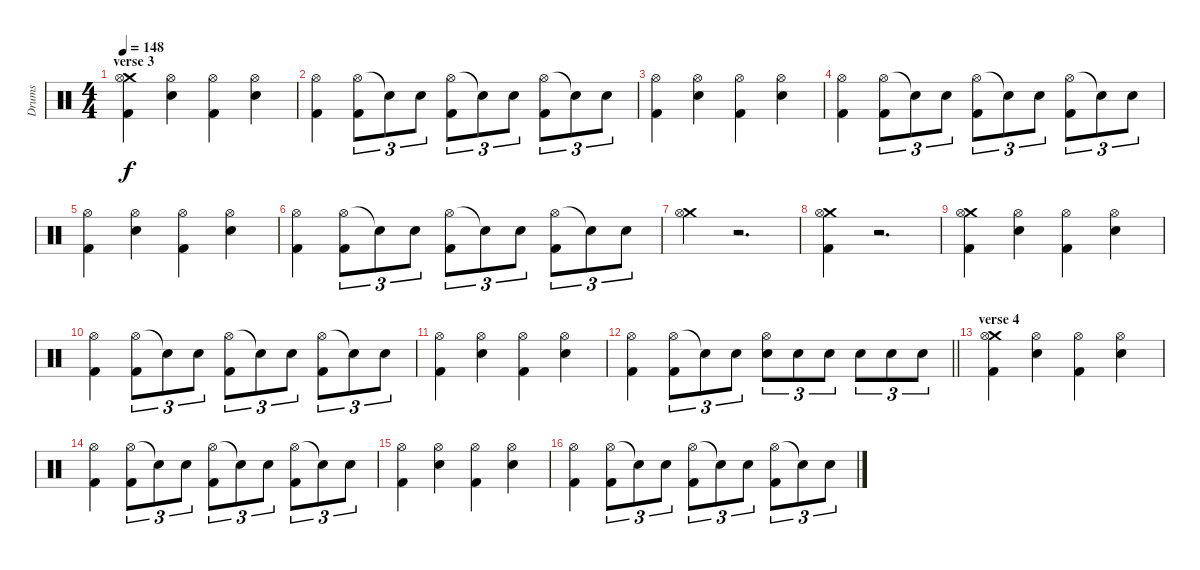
\track ("Drums" "Drums") {instrument percussion}
\staff {score}
\articulation defaults
\ts (4 4)
\section ("" "verse 3")
\tempo 148
\clef neutral
\ks c
("Crash medium (hit)" "Hi-Hat (open)" "Kick (hit) 2").4{dy f} ("Hi-Hat (open)" "Snare (hit) 2").4 ("Hi-Hat (open)" "Kick (hit) 2").4 ("Hi-Hat (open)" "Snare (hit) 2").4 |
("Hi-Hat (open)" "Kick (hit) 2").4 ("Hi-Hat (open)" "Kick (hit) 2").8{tu (3 2)} "Snare (hit)"{t}.8{tu (3 2)} "Snare (hit) 2".8{tu (3 2)} ("Hi-Hat (open)" "Kick (hit) 2").8{tu (3 2)} "Snare (hit)"{t}.8{tu (3 2)} "Snare (hit) 2".8{tu (3 2)} ("Hi-Hat (open)" "Kick (hit) 2").8{tu (3 2)} "Snare (hit) 2"{t}.8{tu (3 2)} "Snare (hit) 2".8{tu (3 2)} |
("Hi-Hat (open)" "Kick (hit) 2").4 ("Hi-Hat (open)" "Snare (hit) 2").4 ("Hi-Hat (open)" "Kick (hit) 2").4 ("Hi-Hat (open)" "Snare (hit) 2").4 |
("Hi-Hat (open)" "Kick (hit) 2").4 ("Hi-Hat (open)" "Kick (hit) 2").8{tu (3 2)} "Snare (hit)"{t}.8{tu (3 2)} "Snare (hit) 2".8{tu (3 2)} ("Hi-Hat (open)" "Kick (hit) 2").8{tu (3 2)} "Snare (hit)"{t}.8{tu (3 2)} "Snare (hit) 2".8{tu (3 2)} ("Hi-Hat (open)" "Kick (hit) 2").8{tu (3 2)} "Snare (hit) 2"{t}.8{tu (3 2)} "Snare (hit) 2".8{tu (3 2)} |
("Hi-Hat (open)" "Kick (hit) 2").4 ("Hi-Hat (open)" "Snare (hit) 2").4 ("Hi-Hat (open)" "Kick (hit) 2").4 ("Hi-Hat (open)" "Snare (hit) 2").4 |
("Hi-Hat (open)" "Kick (hit) 2").4 ("Hi-Hat (open)" "Kick (hit) 2").8{tu (3 2)} "Snare (hit)"{t}.8{tu (3 2)} "Snare (hit) 2".8{tu (3 2)} ("Hi-Hat (open)" "Kick (hit) 2").8{tu (3 2)} "Snare (hit)"{t}.8{tu (3 2)} "Snare (hit) 2".8{tu (3 2)} ("Hi-Hat (open)" "Kick (hit) 2").8{tu (3 2)} "Snare (hit) 2"{t}.8{tu (3 2)} "Snare (hit) 2".8{tu (3 2)} |
("Crash medium (hit)" "Hi-Hat (open)").4 r.2{d} |
("Crash medium (hit)" "Hi-Hat (open)" "Kick (hit) 2").4 r.2{d} |
("Crash medium (hit)" "Hi-Hat (open)" "Kick (hit) 2").4 ("Hi-Hat (open)" "Snare (hit) 2").4 ("Hi-Hat (open)" "Kick (hit) 2").4 ("Hi-Hat (open)" "Snare (hit) 2").4 |
("Hi-Hat (open)" "Kick (hit) 2").4 ("Hi-Hat (open)" "Kick (hit) 2").8{tu (3 2)} "Snare (hit)"{t}.8{tu (3 2)} "Snare (hit) 2".8{tu (3 2)} ("Hi-Hat (open)" "Kick (hit) 2").8{tu (3 2)} "Snare (hit)"{t}.8{tu (3 2)} "Snare (hit) 2".8{tu (3 2)} ("Hi-Hat (open)" "Kick (hit) 2").8{tu (3 2)} "Snare (hit) 2"{t}.8{tu (3 2)} "Snare (hit) 2".8{tu (3 2)} |
("Hi-Hat (open)" "Kick (hit) 2").4 ("Hi-Hat (open)" "Snare (hit) 2").4 ("Hi-Hat (open)" "Kick (hit) 2").4 ("Hi-Hat (open)" "Snare (hit) 2").4 |
\barLineRight lightlight
("Hi-Hat (open)" "Kick (hit) 2").4 ("Hi-Hat (open)" "Kick (hit) 2").8{tu (3 2)} "Snare (hit)"{t}.8{tu (3 2)} "Snare (hit) 2".8{tu (3 2)} ("Hi-Hat (open)" "Snare (hit) 2").8{tu (3 2)} "Snare (hit) 2".8{tu (3 2)} "Snare (hit) 2".8{tu (3 2)} "Snare (hit) 2".8{tu (3 2)} "Snare (hit) 2".8{tu (3 2)} "Snare (hit) 2".8{tu (3 2)} |
\section ("" "verse 4")
("Crash medium (hit)" "Hi-Hat (open)" "Kick (hit) 2").4 ("Hi-Hat (open)" "Snare (hit) 2").4 ("Hi-Hat (open)" "Kick (hit) 2").4 ("Hi-Hat (open)" "Snare (hit) 2").4 |
("Hi-Hat (open)" "Kick (hit) 2").4 ("Hi-Hat (open)" "Kick (hit) 2").8{tu (3 2)} "Snare (hit)"{t}.8{tu (3 2)} "Snare (hit) 2".8{tu (3 2)} ("Hi-Hat (open)" "Kick (hit) 2").8{tu (3 2)} "Snare (hit)"{t}.8{tu (3 2)} "Snare (hit) 2".8{tu (3 2)} ("Hi-Hat (open)" "Kick (hit) 2").8{tu (3 2)} "Snare (hit) 2"{t}.8{tu (3 2)} "Snare (hit) 2".8{tu (3 2)} |
("Hi-Hat (open)" "Kick (hit) 2").4 ("Hi-Hat (open)" "Snare (hit) 2").4 ("Hi-Hat (open)" "Kick (hit) 2").4 ("Hi-Hat (open)" "Snare (hit) 2").4 |
("Hi-Hat (open)" "Kick (hit) 2").4 ("Hi-Hat (open)" "Kick (hit) 2").8{tu (3 2)} "Snare (hit)"{t}.8{tu (3 2)} "Snare (hit) 2".8{tu (3 2)} ("Hi-Hat (open)" "Kick (hit) 2").8{tu (3 2)} "Snare (hit)"{t}.8{tu (3 2)} "Snare (hit) 2".8{tu (3 2)} ("Hi-Hat (open)" "Kick (hit) 2").8{tu (3 2)} "Snare (hit) 2"{t}.8{tu (3 2)} "Snare (hit) 2".8{tu (3 2)}
